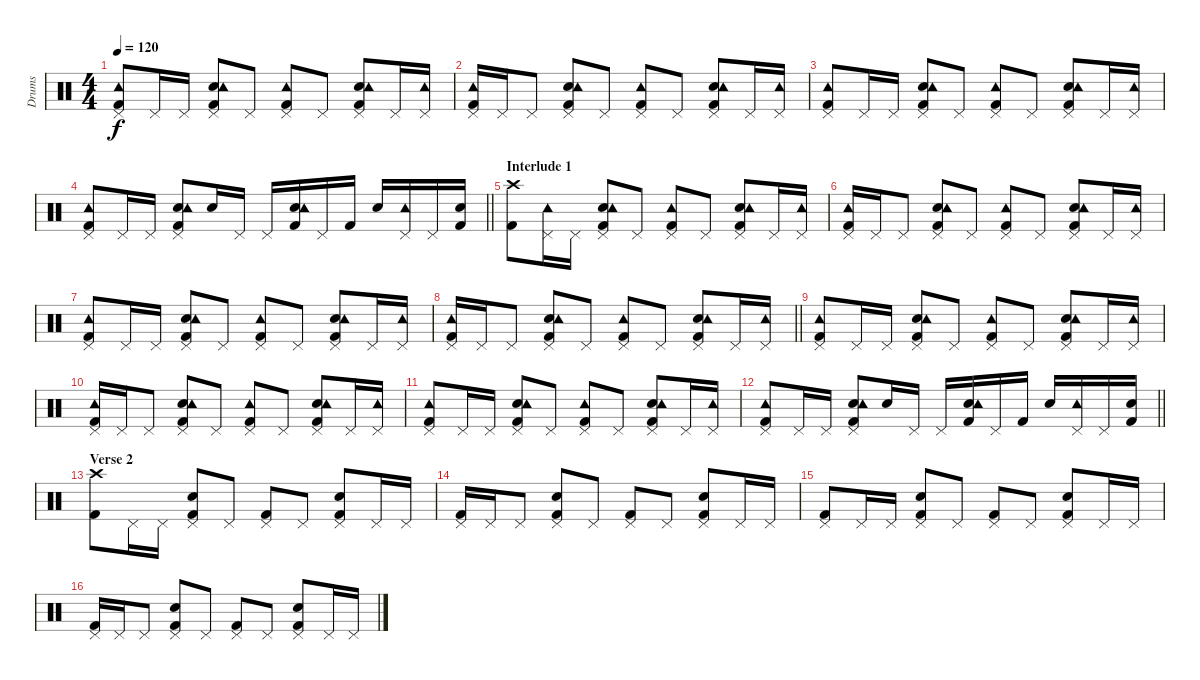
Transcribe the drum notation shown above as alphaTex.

\track ("Drums" "Drums") {instrument percussion}
\staff {score}
\articulation defaults
\ts (4 4)
\tempo 120
\clef neutral
\ks c
("Kick (hit) 2" "Tambourine (hit)" "Pedal Hi-Hat (hit)").8{dy f} "Pedal Hi-Hat (hit)".16 "Pedal Hi-Hat (hit)".16 ("Kick (hit) 2" "Snare (hit) 2" "Tambourine (hit)" "Pedal Hi-Hat (hit)").8 "Pedal Hi-Hat (hit)".8 ("Kick (hit) 2" "Tambourine (hit)" "Pedal Hi-Hat (hit)").8 "Pedal Hi-Hat (hit)".8 ("Kick (hit) 2" "Snare (hit) 2" "Tambourine (hit)" "Pedal Hi-Hat (hit)").8 "Pedal Hi-Hat (hit)".16 ("Tambourine (hit)" "Pedal Hi-Hat (hit)").16 |
("Kick (hit) 2" "Tambourine (hit)" "Pedal Hi-Hat (hit)").16 "Pedal Hi-Hat (hit)".16 "Pedal Hi-Hat (hit)".8 ("Kick (hit) 2" "Snare (hit) 2" "Tambourine (hit)" "Pedal Hi-Hat (hit)").8 "Pedal Hi-Hat (hit)".8 ("Kick (hit) 2" "Tambourine (hit)" "Pedal Hi-Hat (hit)").8 "Pedal Hi-Hat (hit)".8 ("Kick (hit) 2" "Snare (hit) 2" "Tambourine (hit)" "Pedal Hi-Hat (hit)").8 "Pedal Hi-Hat (hit)".16 ("Tambourine (hit)" "Pedal Hi-Hat (hit)").16 |
("Kick (hit) 2" "Tambourine (hit)" "Pedal Hi-Hat (hit)").8 "Pedal Hi-Hat (hit)".16 "Pedal Hi-Hat (hit)".16 ("Kick (hit) 2" "Snare (hit) 2" "Tambourine (hit)" "Pedal Hi-Hat (hit)").8 "Pedal Hi-Hat (hit)".8 ("Kick (hit) 2" "Tambourine (hit)" "Pedal Hi-Hat (hit)").8 "Pedal Hi-Hat (hit)".8 ("Kick (hit) 2" "Snare (hit) 2" "Tambourine (hit)" "Pedal Hi-Hat (hit)").8 "Pedal Hi-Hat (hit)".16 ("Tambourine (hit)" "Pedal Hi-Hat (hit)").16 |
\barLineRight lightlight
("Kick (hit) 2" "Tambourine (hit)" "Pedal Hi-Hat (hit)").8 "Pedal Hi-Hat (hit)".16 "Pedal Hi-Hat (hit)".16 ("Kick (hit) 2" "Snare (hit) 2" "Tambourine (hit)" "Pedal Hi-Hat (hit)").8 "Snare (hit) 2".16 "Pedal Hi-Hat (hit)".16 "Pedal Hi-Hat (hit)".16 ("Kick (hit) 2" "Snare (hit) 2" "Tambourine (hit)").16 "Pedal Hi-Hat (hit)".16 "Kick (hit) 2".16 "Snare (hit) 2".16 ("Tambourine (hit)" "Pedal Hi-Hat (hit)").16 "Pedal Hi-Hat (hit)".16 ("Kick (hit) 2" "Snare (hit) 2").16 |
\section ("" "Interlude 1")
("Kick (hit) 2" "Crash high (hit)").8 ("Tambourine (hit)" "Pedal Hi-Hat (hit)").16 "Pedal Hi-Hat (hit)".16 ("Kick (hit) 2" "Snare (hit) 2" "Tambourine (hit)" "Pedal Hi-Hat (hit)").8 "Pedal Hi-Hat (hit)".8 ("Kick (hit) 2" "Tambourine (hit)" "Pedal Hi-Hat (hit)").8 "Pedal Hi-Hat (hit)".8 ("Kick (hit) 2" "Snare (hit) 2" "Tambourine (hit)" "Pedal Hi-Hat (hit)").8 "Pedal Hi-Hat (hit)".16 ("Tambourine (hit)" "Pedal Hi-Hat (hit)").16 |
("Kick (hit) 2" "Tambourine (hit)" "Pedal Hi-Hat (hit)").16 "Pedal Hi-Hat (hit)".16 "Pedal Hi-Hat (hit)".8 ("Kick (hit) 2" "Snare (hit) 2" "Tambourine (hit)" "Pedal Hi-Hat (hit)").8 "Pedal Hi-Hat (hit)".8 ("Kick (hit) 2" "Tambourine (hit)" "Pedal Hi-Hat (hit)").8 "Pedal Hi-Hat (hit)".8 ("Kick (hit) 2" "Snare (hit) 2" "Tambourine (hit)" "Pedal Hi-Hat (hit)").8 "Pedal Hi-Hat (hit)".16 ("Tambourine (hit)" "Pedal Hi-Hat (hit)").16 |
("Kick (hit) 2" "Tambourine (hit)" "Pedal Hi-Hat (hit)").8 "Pedal Hi-Hat (hit)".16 "Pedal Hi-Hat (hit)".16 ("Kick (hit) 2" "Snare (hit) 2" "Tambourine (hit)" "Pedal Hi-Hat (hit)").8 "Pedal Hi-Hat (hit)".8 ("Kick (hit) 2" "Tambourine (hit)" "Pedal Hi-Hat (hit)").8 "Pedal Hi-Hat (hit)".8 ("Kick (hit) 2" "Snare (hit) 2" "Tambourine (hit)" "Pedal Hi-Hat (hit)").8 "Pedal Hi-Hat (hit)".16 ("Tambourine (hit)" "Pedal Hi-Hat (hit)").16 |
\barLineRight lightlight
("Kick (hit) 2" "Tambourine (hit)" "Pedal Hi-Hat (hit)").16 "Pedal Hi-Hat (hit)".16 "Pedal Hi-Hat (hit)".8 ("Kick (hit) 2" "Snare (hit) 2" "Tambourine (hit)" "Pedal Hi-Hat (hit)").8 "Pedal Hi-Hat (hit)".8 ("Kick (hit) 2" "Tambourine (hit)" "Pedal Hi-Hat (hit)").8 "Pedal Hi-Hat (hit)".8 ("Kick (hit) 2" "Snare (hit) 2" "Tambourine (hit)" "Pedal Hi-Hat (hit)").8 "Pedal Hi-Hat (hit)".16 ("Tambourine (hit)" "Pedal Hi-Hat (hit)").16 |
("Kick (hit) 2" "Tambourine (hit)" "Pedal Hi-Hat (hit)").8 "Pedal Hi-Hat (hit)".16 "Pedal Hi-Hat (hit)".16 ("Kick (hit) 2" "Snare (hit) 2" "Tambourine (hit)" "Pedal Hi-Hat (hit)").8 "Pedal Hi-Hat (hit)".8 ("Kick (hit) 2" "Tambourine (hit)" "Pedal Hi-Hat (hit)").8 "Pedal Hi-Hat (hit)".8 ("Kick (hit) 2" "Snare (hit) 2" "Tambourine (hit)" "Pedal Hi-Hat (hit)").8 "Pedal Hi-Hat (hit)".16 ("Tambourine (hit)" "Pedal Hi-Hat (hit)").16 |
("Kick (hit) 2" "Tambourine (hit)" "Pedal Hi-Hat (hit)").16 "Pedal Hi-Hat (hit)".16 "Pedal Hi-Hat (hit)".8 ("Kick (hit) 2" "Snare (hit) 2" "Tambourine (hit)" "Pedal Hi-Hat (hit)").8 "Pedal Hi-Hat (hit)".8 ("Kick (hit) 2" "Tambourine (hit)" "Pedal Hi-Hat (hit)").8 "Pedal Hi-Hat (hit)".8 ("Kick (hit) 2" "Snare (hit) 2" "Tambourine (hit)" "Pedal Hi-Hat (hit)").8 "Pedal Hi-Hat (hit)".16 ("Tambourine (hit)" "Pedal Hi-Hat (hit)").16 |
("Kick (hit) 2" "Tambourine (hit)" "Pedal Hi-Hat (hit)").8 "Pedal Hi-Hat (hit)".16 "Pedal Hi-Hat (hit)".16 ("Kick (hit) 2" "Snare (hit) 2" "Tambourine (hit)" "Pedal Hi-Hat (hit)").8 "Pedal Hi-Hat (hit)".8 ("Kick (hit) 2" "Tambourine (hit)" "Pedal Hi-Hat (hit)").8 "Pedal Hi-Hat (hit)".8 ("Kick (hit) 2" "Snare (hit) 2" "Tambourine (hit)" "Pedal Hi-Hat (hit)").8 "Pedal Hi-Hat (hit)".16 ("Tambourine (hit)" "Pedal Hi-Hat (hit)").16 |
\barLineRight lightlight
("Kick (hit) 2" "Tambourine (hit)" "Pedal Hi-Hat (hit)").8 "Pedal Hi-Hat (hit)".16 "Pedal Hi-Hat (hit)".16 ("Kick (hit) 2" "Snare (hit) 2" "Tambourine (hit)" "Pedal Hi-Hat (hit)").8 "Snare (hit) 2".16 "Pedal Hi-Hat (hit)".16 "Pedal Hi-Hat (hit)".16 ("Kick (hit) 2" "Snare (hit) 2" "Tambourine (hit)").16 "Pedal Hi-Hat (hit)".16 "Kick (hit) 2".16 "Snare (hit) 2".16 ("Tambourine (hit)" "Pedal Hi-Hat (hit)").16 "Pedal Hi-Hat (hit)".16 ("Kick (hit) 2" "Snare (hit) 2").16 |
\section ("" "Verse 2")
("Kick (hit) 2" "Crash high (hit)").8 "Pedal Hi-Hat (hit)".16 "Pedal Hi-Hat (hit)".16 ("Kick (hit) 2" "Snare (hit) 2" "Pedal Hi-Hat (hit)").8 "Pedal Hi-Hat (hit)".8 ("Kick (hit) 2" "Pedal Hi-Hat (hit)").8 "Pedal Hi-Hat (hit)".8 ("Kick (hit) 2" "Snare (hit) 2" "Pedal Hi-Hat (hit)").8 "Pedal Hi-Hat (hit)".16 "Pedal Hi-Hat (hit)".16 |
("Kick (hit) 2" "Pedal Hi-Hat (hit)").16 "Pedal Hi-Hat (hit)".16 "Pedal Hi-Hat (hit)".8 ("Kick (hit) 2" "Snare (hit) 2" "Pedal Hi-Hat (hit)").8 "Pedal Hi-Hat (hit)".8 ("Kick (hit) 2" "Pedal Hi-Hat (hit)").8 "Pedal Hi-Hat (hit)".8 ("Kick (hit) 2" "Snare (hit) 2" "Pedal Hi-Hat (hit)").8 "Pedal Hi-Hat (hit)".16 "Pedal Hi-Hat (hit)".16 |
("Kick (hit) 2" "Pedal Hi-Hat (hit)").8 "Pedal Hi-Hat (hit)".16 "Pedal Hi-Hat (hit)".16 ("Kick (hit) 2" "Snare (hit) 2" "Pedal Hi-Hat (hit)").8 "Pedal Hi-Hat (hit)".8 ("Kick (hit) 2" "Pedal Hi-Hat (hit)").8 "Pedal Hi-Hat (hit)".8 ("Kick (hit) 2" "Snare (hit) 2" "Pedal Hi-Hat (hit)").8 "Pedal Hi-Hat (hit)".16 "Pedal Hi-Hat (hit)".16 |
("Kick (hit) 2" "Pedal Hi-Hat (hit)").16 "Pedal Hi-Hat (hit)".16 "Pedal Hi-Hat (hit)".8 ("Kick (hit) 2" "Snare (hit) 2" "Pedal Hi-Hat (hit)").8 "Pedal Hi-Hat (hit)".8 ("Kick (hit) 2" "Pedal Hi-Hat (hit)").8 "Pedal Hi-Hat (hit)".8 ("Kick (hit) 2" "Snare (hit) 2" "Pedal Hi-Hat (hit)").8 "Pedal Hi-Hat (hit)".16 "Pedal Hi-Hat (hit)".16
